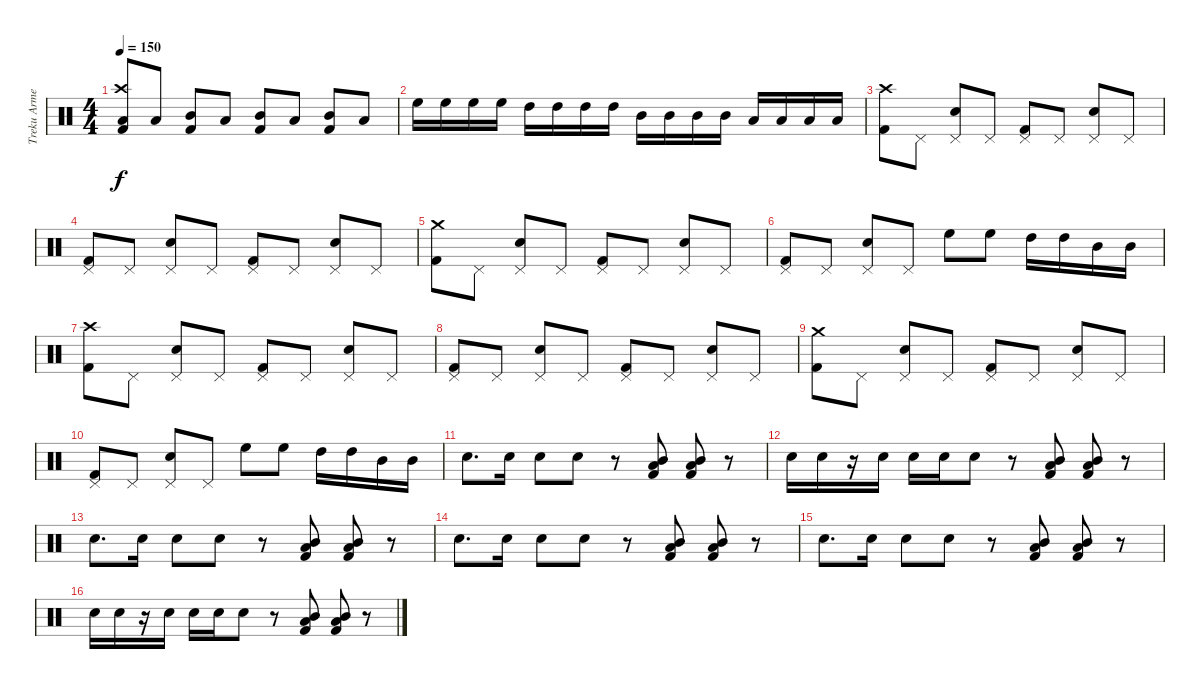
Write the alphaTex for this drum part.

\track ("Treku Armendáriz" "Treku Arme") {instrument percussion}
\staff {score}
\articulation defaults
\ts (4 4)
\tempo 150
\clef neutral
\ks c
("Kick (hit) 2" "Crash high (hit)" "Low Tom (hit)").8{dy f} "Low Tom (hit)".8 ("Kick (hit) 2" "Mid Tom (hit)").8 "Low Tom (hit)".8 ("Kick (hit) 2" "Mid Tom (hit)").8 "Low Tom (hit)".8 ("Kick (hit) 2" "Mid Tom (hit)").8 "Low Tom (hit)".8 |
"High Floor Tom (hit)".16 "High Floor Tom (hit)".16 "High Floor Tom (hit)".16 "High Floor Tom (hit)".16 "High Tom (hit)".16 "High Tom (hit)".16 "High Tom (hit)".16 "High Tom (hit)".16 "Mid Tom (hit)".16 "Mid Tom (hit)".16 "Mid Tom (hit)".16 "Mid Tom (hit)".16 "Low Tom (hit)".16 "Low Tom (hit)".16 "Low Tom (hit)".16 "Low Tom (hit)".16 |
("Crash high (hit)" "Kick (hit) 2").8 "Pedal Hi-Hat (hit)".8 ("Pedal Hi-Hat (hit)" "Electric Snare (hit)").8 "Pedal Hi-Hat (hit)".8 ("Pedal Hi-Hat (hit)" "Kick (hit) 2").8 "Pedal Hi-Hat (hit)".8 ("Pedal Hi-Hat (hit)" "Electric Snare (hit)").8 "Pedal Hi-Hat (hit)".8 |
("Pedal Hi-Hat (hit)" "Kick (hit) 2").8 "Pedal Hi-Hat (hit)".8 ("Pedal Hi-Hat (hit)" "Electric Snare (hit)").8 "Pedal Hi-Hat (hit)".8 ("Pedal Hi-Hat (hit)" "Kick (hit) 2").8 "Pedal Hi-Hat (hit)".8 ("Pedal Hi-Hat (hit)" "Electric Snare (hit)").8 "Pedal Hi-Hat (hit)".8 |
("Crash medium (hit)" "Kick (hit) 2").8 "Pedal Hi-Hat (hit)".8 ("Pedal Hi-Hat (hit)" "Electric Snare (hit)").8 "Pedal Hi-Hat (hit)".8 ("Pedal Hi-Hat (hit)" "Kick (hit) 2").8 "Pedal Hi-Hat (hit)".8 ("Pedal Hi-Hat (hit)" "Electric Snare (hit)").8 "Pedal Hi-Hat (hit)".8 |
("Pedal Hi-Hat (hit)" "Kick (hit) 2").8 "Pedal Hi-Hat (hit)".8 ("Pedal Hi-Hat (hit)" "Electric Snare (hit)").8 "Pedal Hi-Hat (hit)".8 "High Floor Tom (hit)".8 "High Floor Tom (hit)".8 "High Tom (hit)".16 "High Tom (hit)".16 "Mid Tom (hit)".16 "Mid Tom (hit)".16 |
("Crash high (hit)" "Kick (hit) 2").8 "Pedal Hi-Hat (hit)".8 ("Pedal Hi-Hat (hit)" "Electric Snare (hit)").8 "Pedal Hi-Hat (hit)".8 ("Pedal Hi-Hat (hit)" "Kick (hit) 2").8 "Pedal Hi-Hat (hit)".8 ("Pedal Hi-Hat (hit)" "Electric Snare (hit)").8 "Pedal Hi-Hat (hit)".8 |
("Pedal Hi-Hat (hit)" "Kick (hit) 2").8 "Pedal Hi-Hat (hit)".8 ("Pedal Hi-Hat (hit)" "Electric Snare (hit)").8 "Pedal Hi-Hat (hit)".8 ("Pedal Hi-Hat (hit)" "Kick (hit) 2").8 "Pedal Hi-Hat (hit)".8 ("Pedal Hi-Hat (hit)" "Electric Snare (hit)").8 "Pedal Hi-Hat (hit)".8 |
("Crash medium (hit)" "Kick (hit) 2").8 "Pedal Hi-Hat (hit)".8 ("Pedal Hi-Hat (hit)" "Electric Snare (hit)").8 "Pedal Hi-Hat (hit)".8 ("Pedal Hi-Hat (hit)" "Kick (hit) 2").8 "Pedal Hi-Hat (hit)".8 ("Pedal Hi-Hat (hit)" "Electric Snare (hit)").8 "Pedal Hi-Hat (hit)".8 |
("Pedal Hi-Hat (hit)" "Kick (hit) 2").8 "Pedal Hi-Hat (hit)".8 ("Pedal Hi-Hat (hit)" "Electric Snare (hit)").8 "Pedal Hi-Hat (hit)".8 "High Floor Tom (hit)".8 "High Floor Tom (hit)".8 "High Tom (hit)".16 "High Tom (hit)".16 "Mid Tom (hit)".16 "Mid Tom (hit)".16 |
"Electric Snare (hit)".8{d} "Electric Snare (hit)".16 "Electric Snare (hit)".8 "Electric Snare (hit)".8 r.8 ("Kick (hit) 2" "Low Tom (hit)" "Mid Tom (hit)").8 ("Kick (hit) 2" "Low Tom (hit)" "Mid Tom (hit)").8 r.8 |
"Electric Snare (hit)".16 "Electric Snare (hit)".16 r.16 "Electric Snare (hit)".16 "Electric Snare (hit)".16 "Electric Snare (hit)".16 "Electric Snare (hit)".8 r.8 ("Kick (hit) 2" "Low Tom (hit)" "Mid Tom (hit)").8 ("Kick (hit) 2" "Low Tom (hit)" "Mid Tom (hit)").8 r.8 |
"Electric Snare (hit)".8{d} "Electric Snare (hit)".16 "Electric Snare (hit)".8 "Electric Snare (hit)".8 r.8 ("Kick (hit) 2" "Low Tom (hit)" "Mid Tom (hit)").8 ("Kick (hit) 2" "Low Tom (hit)" "Mid Tom (hit)").8 r.8 |
"Electric Snare (hit)".8{d} "Electric Snare (hit)".16 "Electric Snare (hit)".8 "Electric Snare (hit)".8 r.8 ("Kick (hit) 2" "Low Tom (hit)" "Mid Tom (hit)").8 ("Kick (hit) 2" "Low Tom (hit)" "Mid Tom (hit)").8 r.8 |
"Electric Snare (hit)".8{d} "Electric Snare (hit)".16 "Electric Snare (hit)".8 "Electric Snare (hit)".8 r.8 ("Kick (hit) 2" "Low Tom (hit)" "Mid Tom (hit)").8 ("Kick (hit) 2" "Low Tom (hit)" "Mid Tom (hit)").8 r.8 |
"Electric Snare (hit)".16 "Electric Snare (hit)".16 r.16 "Electric Snare (hit)".16 "Electric Snare (hit)".16 "Electric Snare (hit)".16 "Electric Snare (hit)".8 r.8 ("Kick (hit) 2" "Low Tom (hit)" "Mid Tom (hit)").8 ("Kick (hit) 2" "Low Tom (hit)" "Mid Tom (hit)").8 r.8
